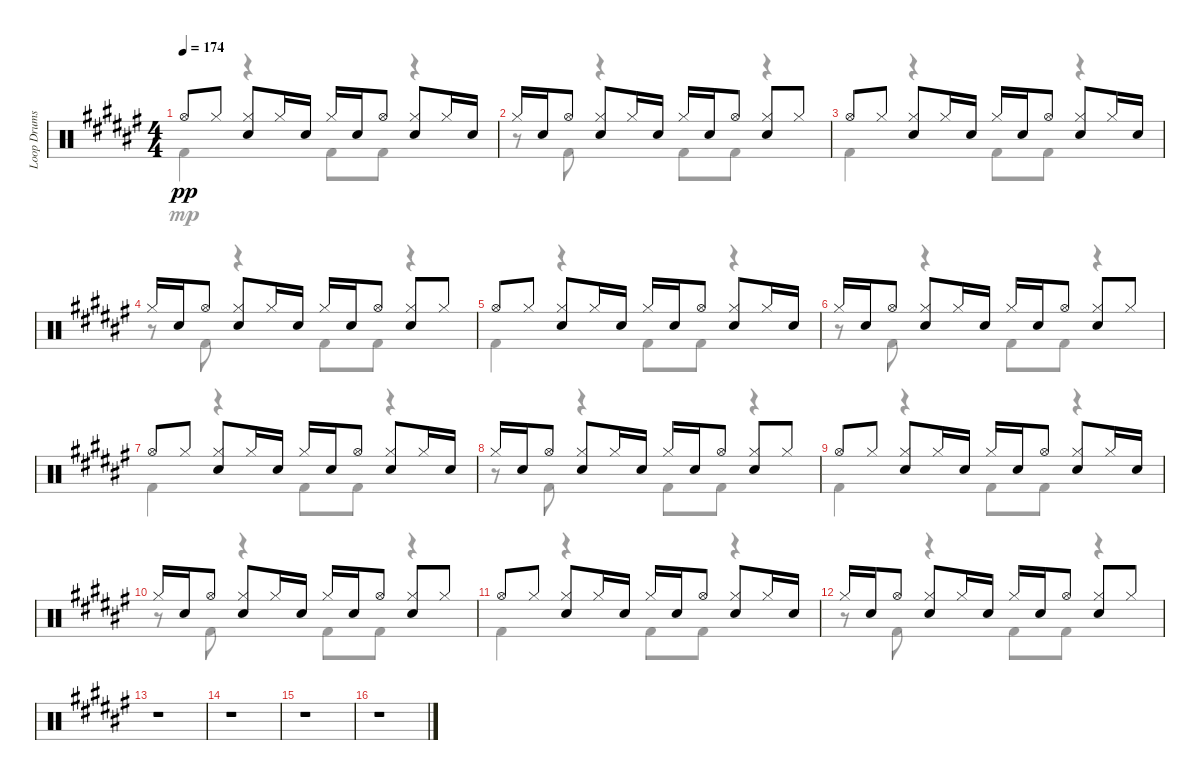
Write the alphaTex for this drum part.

\track ("Loop Drums" "Loop Drums") {instrument percussion}
\staff {score}
\articulation defaults
\voice
\ts (4 4)
\tempo 174
\clef neutral
\ks f# "Hi-Hat (open)".8{dy pp} "Hi-Hat (closed)".8
("Hi-Hat (closed)" "Electric Snare (hit)").8 "Hi-Hat (closed)".16 "Electric Snare (hit)".16 "Hi-Hat (closed)".16 "Electric Snare (hit)".16 "Hi-Hat (open)".8 ("Hi-Hat (closed)" "Electric Snare (hit)").8 "Hi-Hat (closed)".16 "Electric Snare (hit)".16 |
"Hi-Hat (closed)".16 "Electric Snare (hit)".16 "Hi-Hat (open)".8 ("Hi-Hat (closed)" "Electric Snare (hit)").8 "Hi-Hat (closed)".16 "Electric Snare (hit)".16 "Hi-Hat (closed)".16 "Electric Snare (hit)".16 "Hi-Hat (open)".8 ("Hi-Hat (closed)" "Electric Snare (hit)").8 "Hi-Hat (closed)".8 |
"Hi-Hat (open)".8 "Hi-Hat (closed)".8 ("Hi-Hat (closed)" "Electric Snare (hit)").8 "Hi-Hat (closed)".16 "Electric Snare (hit)".16 "Hi-Hat (closed)".16 "Electric Snare (hit)".16 "Hi-Hat (open)".8 ("Hi-Hat (closed)" "Electric Snare (hit)").8 "Hi-Hat (closed)".16 "Electric Snare (hit)".16 |
"Hi-Hat (closed)".16 "Electric Snare (hit)".16 "Hi-Hat (open)".8 ("Hi-Hat (closed)" "Electric Snare (hit)").8 "Hi-Hat (closed)".16 "Electric Snare (hit)".16 "Hi-Hat (closed)".16 "Electric Snare (hit)".16 "Hi-Hat (open)".8 ("Hi-Hat (closed)" "Electric Snare (hit)").8 "Hi-Hat (closed)".8 |
"Hi-Hat (open)".8 "Hi-Hat (closed)".8 ("Hi-Hat (closed)" "Electric Snare (hit)").8 "Hi-Hat (closed)".16 "Electric Snare (hit)".16 "Hi-Hat (closed)".16 "Electric Snare (hit)".16 "Hi-Hat (open)".8 ("Hi-Hat (closed)" "Electric Snare (hit)").8 "Hi-Hat (closed)".16 "Electric Snare (hit)".16 |
"Hi-Hat (closed)".16 "Electric Snare (hit)".16 "Hi-Hat (open)".8 ("Hi-Hat (closed)" "Electric Snare (hit)").8 "Hi-Hat (closed)".16 "Electric Snare (hit)".16 "Hi-Hat (closed)".16 "Electric Snare (hit)".16 "Hi-Hat (open)".8 ("Hi-Hat (closed)" "Electric Snare (hit)").8 "Hi-Hat (closed)".8 |
"Hi-Hat (open)".8 "Hi-Hat (closed)".8 ("Hi-Hat (closed)" "Electric Snare (hit)").8 "Hi-Hat (closed)".16 "Electric Snare (hit)".16 "Hi-Hat (closed)".16 "Electric Snare (hit)".16 "Hi-Hat (open)".8 ("Hi-Hat (closed)" "Electric Snare (hit)").8 "Hi-Hat (closed)".16 "Electric Snare (hit)".16 |
"Hi-Hat (closed)".16 "Electric Snare (hit)".16 "Hi-Hat (open)".8 ("Hi-Hat (closed)" "Electric Snare (hit)").8 "Hi-Hat (closed)".16 "Electric Snare (hit)".16 "Hi-Hat (closed)".16 "Electric Snare (hit)".16 "Hi-Hat (open)".8 ("Hi-Hat (closed)" "Electric Snare (hit)").8 "Hi-Hat (closed)".8 |
"Hi-Hat (open)".8 "Hi-Hat (closed)".8 ("Hi-Hat (closed)" "Electric Snare (hit)").8 "Hi-Hat (closed)".16 "Electric Snare (hit)".16 "Hi-Hat (closed)".16 "Electric Snare (hit)".16 "Hi-Hat (open)".8 ("Hi-Hat (closed)" "Electric Snare (hit)").8 "Hi-Hat (closed)".16 "Electric Snare (hit)".16 |
"Hi-Hat (closed)".16 "Electric Snare (hit)".16 "Hi-Hat (open)".8 ("Hi-Hat (closed)" "Electric Snare (hit)").8 "Hi-Hat (closed)".16 "Electric Snare (hit)".16 "Hi-Hat (closed)".16 "Electric Snare (hit)".16 "Hi-Hat (open)".8 ("Hi-Hat (closed)" "Electric Snare (hit)").8 "Hi-Hat (closed)".8 |
"Hi-Hat (open)".8 "Hi-Hat (closed)".8 ("Hi-Hat (closed)" "Electric Snare (hit)").8 "Hi-Hat (closed)".16 "Electric Snare (hit)".16 "Hi-Hat (closed)".16 "Electric Snare (hit)".16 "Hi-Hat (open)".8 ("Hi-Hat (closed)" "Electric Snare (hit)").8 "Hi-Hat (closed)".16 "Electric Snare (hit)".16 |
"Hi-Hat (closed)".16 "Electric Snare (hit)".16 "Hi-Hat (open)".8 ("Hi-Hat (closed)" "Electric Snare (hit)").8 "Hi-Hat (closed)".16 "Electric Snare (hit)".16 "Hi-Hat (closed)".16 "Electric Snare (hit)".16 "Hi-Hat (open)".8 ("Hi-Hat (closed)" "Electric Snare (hit)").8 "Hi-Hat (closed)".8 |
r.1 |
r.1 |
r.1 |
r.1
\voice
\clef neutral
\ottava regular
\simile none
\ks f# "Kick (hit) 2".4{dy mp}
r.4 "Kick (hit) 2".8 "Kick (hit) 2".8 r.4 |
r.8 "Kick (hit) 2".8 r.4 "Kick (hit) 2".8 "Kick (hit) 2".8 r.4 |
"Kick (hit) 2".4 r.4 "Kick (hit) 2".8 "Kick (hit) 2".8 r.4 |
r.8 "Kick (hit) 2".8 r.4 "Kick (hit) 2".8 "Kick (hit) 2".8 r.4 |
"Kick (hit) 2".4 r.4 "Kick (hit) 2".8 "Kick (hit) 2".8 r.4 |
r.8 "Kick (hit) 2".8 r.4 "Kick (hit) 2".8 "Kick (hit) 2".8 r.4 |
"Kick (hit) 2".4 r.4 "Kick (hit) 2".8 "Kick (hit) 2".8 r.4 |
r.8 "Kick (hit) 2".8 r.4 "Kick (hit) 2".8 "Kick (hit) 2".8 r.4 |
"Kick (hit) 2".4 r.4 "Kick (hit) 2".8 "Kick (hit) 2".8 r.4 |
r.8 "Kick (hit) 2".8 r.4 "Kick (hit) 2".8 "Kick (hit) 2".8 r.4 |
"Kick (hit) 2".4 r.4 "Kick (hit) 2".8 "Kick (hit) 2".8 r.4 |
r.8 "Kick (hit) 2".8 r.4 "Kick (hit) 2".8 "Kick (hit) 2".8 r.4 |
r.1 |
r.1 |
r.1 |
r.1
